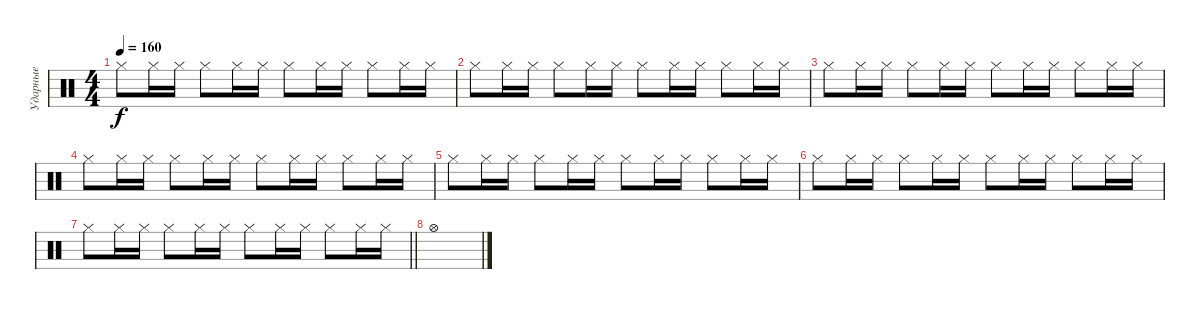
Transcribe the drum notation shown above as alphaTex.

\track ("Ударные" "Ударные") {instrument percussion}
\staff {score}
\articulation defaults
\ts (4 4)
\tempo 160
\clef neutral
\ks c "Hi-Hat (closed)".8{dy f} "Hi-Hat (closed)".16 "Hi-Hat (closed)".16 "Hi-Hat (closed)".8 "Hi-Hat (closed)".16 "Hi-Hat (closed)".16 "Hi-Hat (closed)".8 "Hi-Hat (closed)".16 "Hi-Hat (closed)".16 "Hi-Hat (closed)".8 "Hi-Hat (closed)".16 "Hi-Hat (closed)".16
|
"Hi-Hat (closed)".8 "Hi-Hat (closed)".16 "Hi-Hat (closed)".16 "Hi-Hat (closed)".8 "Hi-Hat (closed)".16 "Hi-Hat (closed)".16 "Hi-Hat (closed)".8 "Hi-Hat (closed)".16 "Hi-Hat (closed)".16 "Hi-Hat (closed)".8 "Hi-Hat (closed)".16 "Hi-Hat (closed)".16 |
"Hi-Hat (closed)".8 "Hi-Hat (closed)".16 "Hi-Hat (closed)".16 "Hi-Hat (closed)".8 "Hi-Hat (closed)".16 "Hi-Hat (closed)".16 "Hi-Hat (closed)".8 "Hi-Hat (closed)".16 "Hi-Hat (closed)".16 "Hi-Hat (closed)".8 "Hi-Hat (closed)".16 "Hi-Hat (closed)".16 |
"Hi-Hat (closed)".8 "Hi-Hat (closed)".16 "Hi-Hat (closed)".16 "Hi-Hat (closed)".8 "Hi-Hat (closed)".16 "Hi-Hat (closed)".16 "Hi-Hat (closed)".8 "Hi-Hat (closed)".16 "Hi-Hat (closed)".16 "Hi-Hat (closed)".8 "Hi-Hat (closed)".16 "Hi-Hat (closed)".16 |
"Hi-Hat (closed)".8 "Hi-Hat (closed)".16 "Hi-Hat (closed)".16 "Hi-Hat (closed)".8 "Hi-Hat (closed)".16 "Hi-Hat (closed)".16 "Hi-Hat (closed)".8 "Hi-Hat (closed)".16 "Hi-Hat (closed)".16 "Hi-Hat (closed)".8 "Hi-Hat (closed)".16 "Hi-Hat (closed)".16 |
"Hi-Hat (closed)".8 "Hi-Hat (closed)".16 "Hi-Hat (closed)".16 "Hi-Hat (closed)".8 "Hi-Hat (closed)".16 "Hi-Hat (closed)".16 "Hi-Hat (closed)".8 "Hi-Hat (closed)".16 "Hi-Hat (closed)".16 "Hi-Hat (closed)".8 "Hi-Hat (closed)".16 "Hi-Hat (closed)".16 |
\barLineRight lightlight "Hi-Hat (closed)".8 "Hi-Hat (closed)".16 "Hi-Hat (closed)".16 "Hi-Hat (closed)".8 "Hi-Hat (closed)".16 "Hi-Hat (closed)".16 "Hi-Hat (closed)".8 "Hi-Hat (closed)".16 "Hi-Hat (closed)".16 "Hi-Hat (closed)".8 "Hi-Hat (closed)".16 "Hi-Hat (closed)".16
|
"Hi-Hat (open)".1
